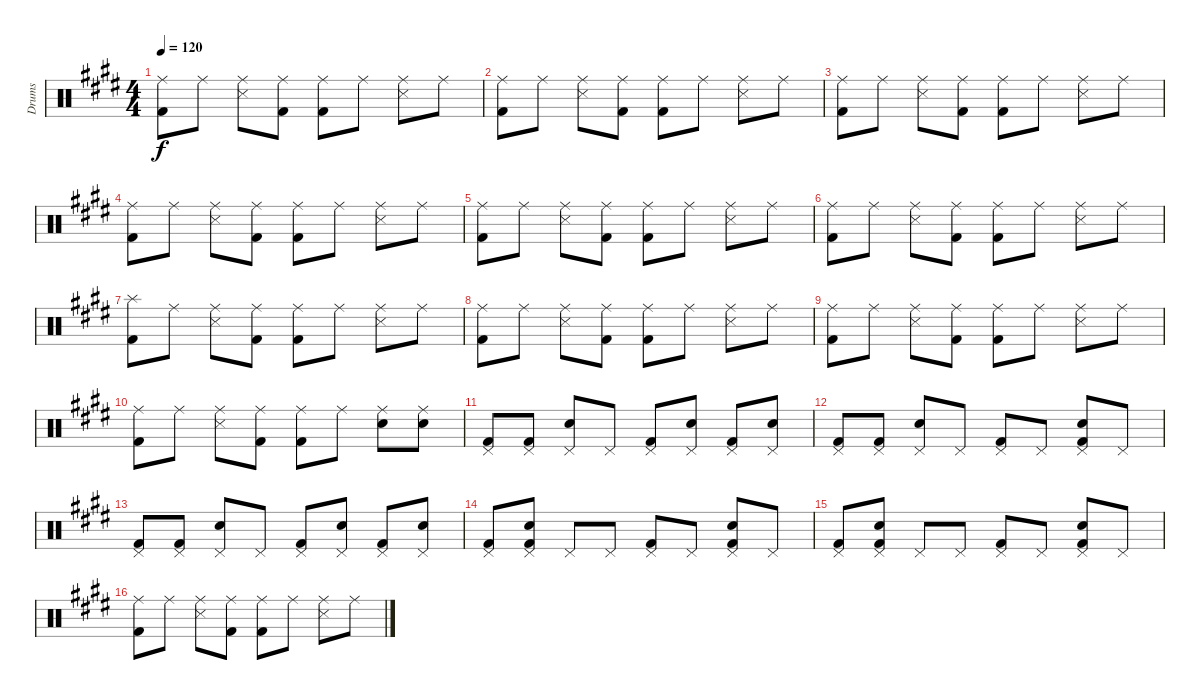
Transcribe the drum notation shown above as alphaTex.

\track ("Drums" "Drums") {instrument percussion}
\staff {score}
\articulation defaults
\ts (4 4)
\tempo 120
\clef neutral
\ks e
("Ride (middle)" "Kick (hit) 2").8{dy f} "Ride (middle)".8 ("Ride (middle)" "Snare (side stick) 3").8 ("Ride (middle)" "Kick (hit) 2").8 ("Ride (middle)" "Kick (hit) 2").8 "Ride (middle)".8 ("Ride (middle)" "Snare (side stick) 3").8 "Ride (middle)".8 |
("Ride (middle)" "Kick (hit) 2").8 "Ride (middle)".8 ("Ride (middle)" "Snare (side stick) 3").8 ("Ride (middle)" "Kick (hit) 2").8 ("Ride (middle)" "Kick (hit) 2").8 "Ride (middle)".8 ("Ride (middle)" "Snare (side stick) 3").8 "Ride (middle)".8 |
("Ride (middle)" "Kick (hit) 2").8 "Ride (middle)".8 ("Ride (middle)" "Snare (side stick) 3").8 ("Ride (middle)" "Kick (hit) 2").8 ("Ride (middle)" "Kick (hit) 2").8 "Ride (middle)".8 ("Ride (middle)" "Snare (side stick) 3").8 "Ride (middle)".8 |
("Ride (middle)" "Kick (hit) 2").8 "Ride (middle)".8 ("Ride (middle)" "Snare (side stick) 3").8 ("Ride (middle)" "Kick (hit) 2").8 ("Ride (middle)" "Kick (hit) 2").8 "Ride (middle)".8 ("Ride (middle)" "Snare (side stick) 3").8 "Ride (middle)".8 |
("Ride (middle)" "Kick (hit) 2").8 "Ride (middle)".8 ("Ride (middle)" "Snare (side stick) 3").8 ("Ride (middle)" "Kick (hit) 2").8 ("Ride (middle)" "Kick (hit) 2").8 "Ride (middle)".8 ("Ride (middle)" "Snare (side stick) 3").8 "Ride (middle)".8 |
("Ride (middle)" "Kick (hit) 2").8 "Ride (middle)".8 ("Ride (middle)" "Snare (side stick) 3").8 ("Ride (middle)" "Kick (hit) 2").8 ("Ride (middle)" "Kick (hit) 2").8 "Ride (middle)".8 ("Ride (middle)" "Snare (side stick) 3").8 "Ride (middle)".8 |
("Splash (hit)" "Kick (hit) 2").8 "Ride (middle)".8 ("Ride (middle)" "Snare (side stick) 3").8 ("Ride (middle)" "Kick (hit) 2").8 ("Ride (middle)" "Kick (hit) 2").8 "Ride (middle)".8 ("Ride (middle)" "Snare (side stick) 3").8 "Ride (middle)".8 |
("Ride (middle)" "Kick (hit) 2").8 "Ride (middle)".8 ("Ride (middle)" "Snare (side stick) 3").8 ("Ride (middle)" "Kick (hit) 2").8 ("Ride (middle)" "Kick (hit) 2").8 "Ride (middle)".8 ("Ride (middle)" "Snare (side stick) 3").8 "Ride (middle)".8 |
("Ride (middle)" "Kick (hit) 2").8 "Ride (middle)".8 ("Ride (middle)" "Snare (side stick) 3").8 ("Ride (middle)" "Kick (hit) 2").8 ("Ride (middle)" "Kick (hit) 2").8 "Ride (middle)".8 ("Ride (middle)" "Snare (side stick) 3").8 "Ride (middle)".8 |
("Ride (middle)" "Kick (hit) 2").8 "Ride (middle)".8 ("Ride (middle)" "Snare (side stick) 3").8 ("Ride (middle)" "Kick (hit) 2").8 ("Ride (middle)" "Kick (hit) 2").8 "Ride (middle)".8 ("Ride (middle)" "Snare (hit) 2").8 ("Ride (middle)" "Snare (hit) 2").8 |
("Pedal Hi-Hat (hit)" "Kick (hit) 2").8 ("Pedal Hi-Hat (hit)" "Kick (hit) 2").8 ("Pedal Hi-Hat (hit)" "Snare (hit) 2").8 "Pedal Hi-Hat (hit)".8 ("Pedal Hi-Hat (hit)" "Kick (hit) 2").8 ("Pedal Hi-Hat (hit)" "Snare (hit) 2").8 ("Pedal Hi-Hat (hit)" "Kick (hit) 2").8 ("Pedal Hi-Hat (hit)" "Snare (hit) 2").8 |
("Pedal Hi-Hat (hit)" "Kick (hit) 2").8 ("Pedal Hi-Hat (hit)" "Kick (hit) 2").8 ("Pedal Hi-Hat (hit)" "Snare (hit) 2").8 "Pedal Hi-Hat (hit)".8 ("Pedal Hi-Hat (hit)" "Kick (hit) 2").8 "Pedal Hi-Hat (hit)".8 ("Pedal Hi-Hat (hit)" "Snare (hit) 2" "Kick (hit) 2").8 "Pedal Hi-Hat (hit)".8 |
("Pedal Hi-Hat (hit)" "Kick (hit) 2").8 ("Pedal Hi-Hat (hit)" "Kick (hit) 2").8 ("Pedal Hi-Hat (hit)" "Snare (hit) 2").8 "Pedal Hi-Hat (hit)".8 ("Pedal Hi-Hat (hit)" "Kick (hit) 2").8 ("Pedal Hi-Hat (hit)" "Snare (hit) 2").8 ("Pedal Hi-Hat (hit)" "Kick (hit) 2").8 ("Pedal Hi-Hat (hit)" "Snare (hit) 2").8 |
("Pedal Hi-Hat (hit)" "Kick (hit) 2").8 ("Pedal Hi-Hat (hit)" "Snare (hit) 2" "Kick (hit) 2").8 "Pedal Hi-Hat (hit)".8 "Pedal Hi-Hat (hit)".8 ("Pedal Hi-Hat (hit)" "Kick (hit) 2").8 "Pedal Hi-Hat (hit)".8 ("Pedal Hi-Hat (hit)" "Snare (hit) 2" "Kick (hit) 2").8 "Pedal Hi-Hat (hit)".8 |
("Pedal Hi-Hat (hit)" "Kick (hit) 2").8 ("Pedal Hi-Hat (hit)" "Snare (hit) 2" "Kick (hit) 2").8 "Pedal Hi-Hat (hit)".8 "Pedal Hi-Hat (hit)".8 ("Pedal Hi-Hat (hit)" "Kick (hit) 2").8 "Pedal Hi-Hat (hit)".8 ("Pedal Hi-Hat (hit)" "Snare (hit) 2" "Kick (hit) 2").8 "Pedal Hi-Hat (hit)".8 |
("Ride (middle)" "Kick (hit) 2").8 "Ride (middle)".8 ("Ride (middle)" "Snare (side stick) 3").8 ("Ride (middle)" "Kick (hit) 2").8 ("Ride (middle)" "Kick (hit) 2").8 "Ride (middle)".8 ("Ride (middle)" "Snare (side stick) 3").8 "Ride (middle)".8
